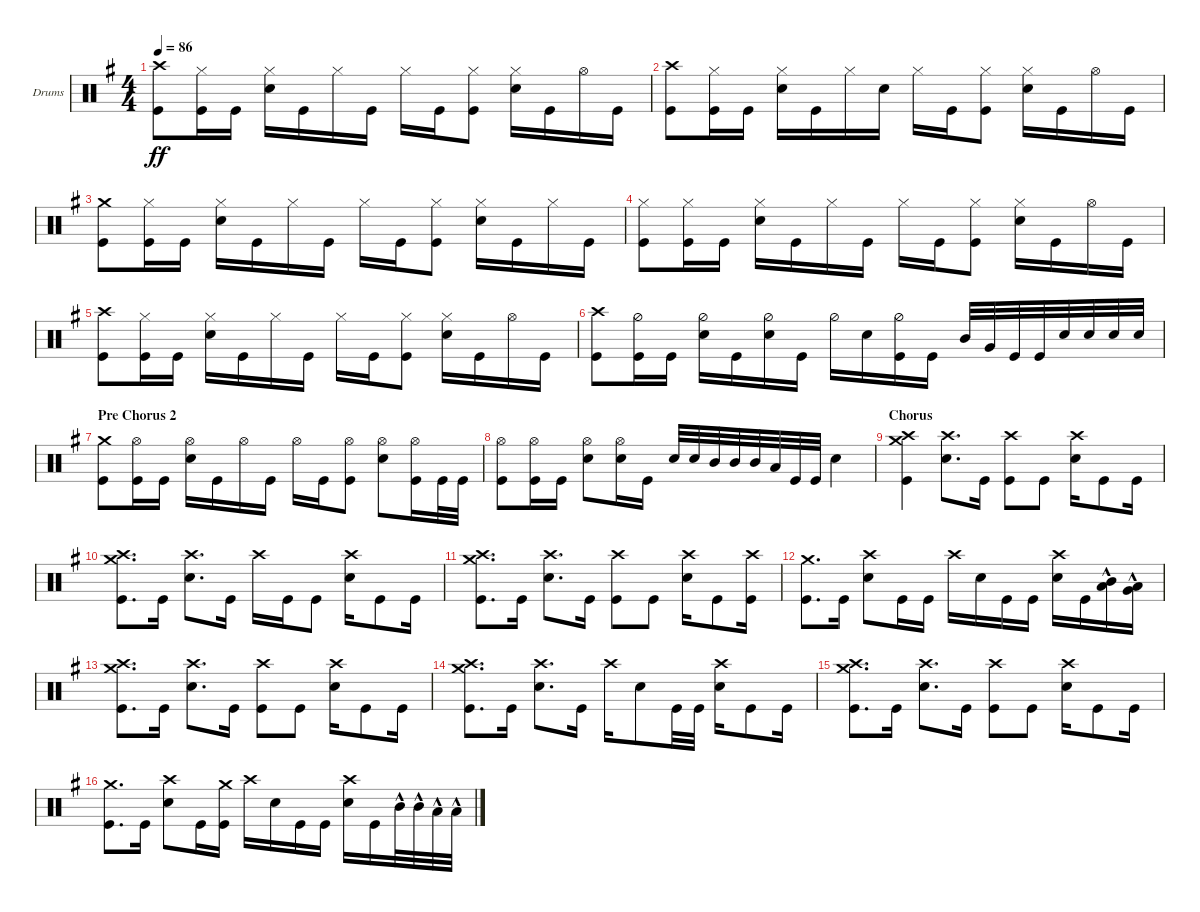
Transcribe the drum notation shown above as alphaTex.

\defaultSystemsLayout 4
\bracketExtendMode groupsimilarinstruments
\firstSystemTrackNameOrientation horizontal
\otherSystemsTrackNameOrientation horizontal
\track ("Drumkit" "Drums") {instrument percussion}
\staff {score}
\articulation defaults
\ts (4 4)
\tempo 86
\clef neutral
\ks eminor
("Kick (hit)" "Crash high (hit)").8{dy ff} ("Kick (hit)" "Hi-Hat (closed)").16 "Kick (hit)".16 ("Snare (hit) 2" "Hi-Hat (closed)").16 "Kick (hit)".16 "Hi-Hat (closed)".16 "Kick (hit)".16 "Hi-Hat (closed)".16 "Kick (hit)".16 ("Kick (hit)" "Hi-Hat (closed)").8 ("Snare (hit) 2" "Hi-Hat (closed)").16 "Kick (hit)".16 "Hi-Hat (open)".16 "Kick (hit)".16 |
("Kick (hit)" "Crash high (hit)").8 ("Kick (hit)" "Hi-Hat (closed)").16 "Kick (hit)".16 ("Snare (hit) 2" "Hi-Hat (closed)").16 "Kick (hit)".16 "Hi-Hat (closed)".16 "Snare (hit) 2".16 "Hi-Hat (closed)".16 "Kick (hit)".16 ("Kick (hit)" "Hi-Hat (closed)").8 ("Snare (hit) 2" "Hi-Hat (closed)").16 "Kick (hit)".16 "Hi-Hat (open)".16 "Kick (hit)".16 |
("Kick (hit)" "Crash medium (hit)").8 ("Kick (hit)" "Hi-Hat (closed)").16 "Kick (hit)".16 ("Snare (hit) 2" "Hi-Hat (closed)").16 "Kick (hit)".16 "Hi-Hat (closed)".16 "Kick (hit)".16 "Hi-Hat (closed)".16 "Kick (hit)".16 ("Kick (hit)" "Hi-Hat (closed)").8 ("Snare (hit) 2" "Hi-Hat (closed)").16 "Kick (hit)".16 "Hi-Hat (closed)".16 "Kick (hit)".16 |
("Kick (hit)" "Hi-Hat (closed)").8 ("Kick (hit)" "Hi-Hat (closed)").16 "Kick (hit)".16 ("Snare (hit) 2" "Hi-Hat (closed)").16 "Kick (hit)".16 "Hi-Hat (closed)".16 "Kick (hit)".16 "Hi-Hat (closed)".16 "Kick (hit)".16 ("Kick (hit)" "Hi-Hat (closed)").8 ("Snare (hit) 2" "Hi-Hat (closed)").16 "Kick (hit)".16 "Hi-Hat (open)".16 "Kick (hit)".16 |
("Kick (hit)" "Crash high (hit)").8 ("Kick (hit)" "Hi-Hat (closed)").16 "Kick (hit)".16 ("Snare (hit) 2" "Hi-Hat (closed)").16 "Kick (hit)".16 "Hi-Hat (closed)".16 "Kick (hit)".16 "Hi-Hat (closed)".16 "Kick (hit)".16 ("Kick (hit)" "Hi-Hat (closed)").8 ("Snare (hit) 2" "Hi-Hat (closed)").16 "Kick (hit)".16 "Hi-Hat (open)".16 "Kick (hit)".16 |
("Kick (hit)" "Crash high (hit)").8 ("Kick (hit)" "Hi-Hat (half)").16 "Kick (hit)".16 ("Snare (hit) 2" "Hi-Hat (half)").16 "Kick (hit)".16 ("Hi-Hat (half)" "Snare (hit) 2").16 "Kick (hit)".16 "Hi-Hat (half)".16 "Snare (hit) 2".16 ("Kick (hit)" "Hi-Hat (half)").16 "Kick (hit)".16 "Mid Tom (hit)".32 "Very Low Tom (hit)".32 "Kick (hit)".32 "Kick (hit)".32 "Snare (hit) 2".32 "Snare (hit) 2".32 "Snare (hit) 2".32 "Snare (hit) 2".32 |
\section ("" "Pre Chorus 2")
("Kick (hit)" "Crash medium (hit)").8 ("Kick (hit)" "Hi-Hat (open)").16 "Kick (hit)".16 ("Snare (hit) 2" "Hi-Hat (open)").16 "Kick (hit)".16 "Hi-Hat (open)".16 "Kick (hit)".16 "Hi-Hat (open)".16 "Kick (hit)".16 ("Kick (hit)" "Hi-Hat (open)").8 ("Snare (hit) 2" "Hi-Hat (open)").8 ("Hi-Hat (open)" "Kick (hit)").16 "Kick (hit)".32 "Kick (hit)".32 |
("Kick (hit)" "Hi-Hat (open)").8 ("Kick (hit)" "Hi-Hat (open)").16 "Kick (hit)".16 ("Snare (hit) 2" "Hi-Hat (open)").8 ("Hi-Hat (open)" "Snare (hit) 2").16 "Kick (hit)".16 "Snare (hit) 2".32 "Snare (hit) 2".32 "Mid Tom (hit)".32 "Mid Tom (hit)".32 "Mid Tom (hit)".32 "Low Tom (hit)".32 "Kick (hit)".32 "Kick (hit)".32 "Snare (hit) 2".4 |
\section ("" "Chorus")
("Crash high (hit)" "Crash medium (hit)" "Kick (hit)").4 ("Crash high (hit)" "Snare (hit) 2").8{d} "Kick (hit)".16 ("Kick (hit)" "Crash high (hit)").8 "Kick (hit)".8 ("Snare (hit) 2" "Crash high (hit)").16 "Kick (hit)".8 "Kick (hit)".16 |
("Crash high (hit)" "Crash medium (hit)" "Kick (hit)").8{d} "Kick (hit)".16 ("Crash high (hit)" "Snare (hit) 2").8{d} "Kick (hit)".16 "Crash high (hit)".16 "Kick (hit)".16 "Kick (hit)".8 ("Snare (hit) 2" "Crash high (hit)").16 "Kick (hit)".8 "Kick (hit)".16 |
("Crash high (hit)" "Crash medium (hit)" "Kick (hit)").8{d} "Kick (hit)".16 ("Crash high (hit)" "Snare (hit) 2").8{d} "Kick (hit)".16 ("Kick (hit)" "Crash high (hit)").8 "Kick (hit)".8 ("Snare (hit) 2" "Crash high (hit)").16 "Kick (hit)".8 ("Kick (hit)" "Crash high (hit)").16 |
("Crash medium (hit)" "Kick (hit)").8{d} "Kick (hit)".16 ("Crash high (hit)" "Snare (hit) 2").8 "Kick (hit)".16 "Kick (hit)".16 "Crash high (hit)".16 "Snare (hit) 2".16 "Kick (hit)".16 "Kick (hit)".16 ("Snare (hit) 2" "Crash high (hit)").16 "Kick (hit)".16 ("Mid Tom (hit)"{hac} "Low Tom (hit)").16 ("Low Tom (hit)"{hac} "Very Low Tom (hit)").16 |
("Crash high (hit)" "Crash medium (hit)" "Kick (hit)").8{d} "Kick (hit)".16 ("Crash high (hit)" "Snare (hit) 2").8{d} "Kick (hit)".16 ("Kick (hit)" "Crash high (hit)").8 "Kick (hit)".8 ("Snare (hit) 2" "Crash high (hit)").16 "Kick (hit)".8 "Kick (hit)".16 |
("Crash high (hit)" "Crash medium (hit)" "Kick (hit)").8{d} "Kick (hit)".16 ("Crash high (hit)" "Snare (hit) 2").8{d} "Kick (hit)".16 "Crash high (hit)".16 "Snare (hit) 2".8 "Kick (hit)".32 "Kick (hit)".32 ("Snare (hit) 2" "Crash high (hit)").16 "Kick (hit)".8 "Kick (hit)".16 |
("Crash high (hit)" "Crash medium (hit)" "Kick (hit)").8{d} "Kick (hit)".16 ("Crash high (hit)" "Snare (hit) 2").8{d} "Kick (hit)".16 ("Kick (hit)" "Crash high (hit)").8 "Kick (hit)".8 ("Snare (hit) 2" "Crash high (hit)").16 "Kick (hit)".8 "Kick (hit)".16 |
("Crash medium (hit)" "Kick (hit)").8{d} "Kick (hit)".16 ("Crash high (hit)" "Snare (hit) 2").8 "Kick (hit)".16 ("Kick (hit)" "Crash medium (hit)").16 "Crash high (hit)".16 "Snare (hit) 2".16 "Kick (hit)".16 "Kick (hit)".16 ("Snare (hit) 2" "Crash high (hit)").16 "Kick (hit)".16 "Mid Tom (hit)"{hac}.32 "Mid Tom (hit)"{hac}.32 "Low Tom (hit)"{hac}.32 "Low Tom (hit)"{hac}.32
